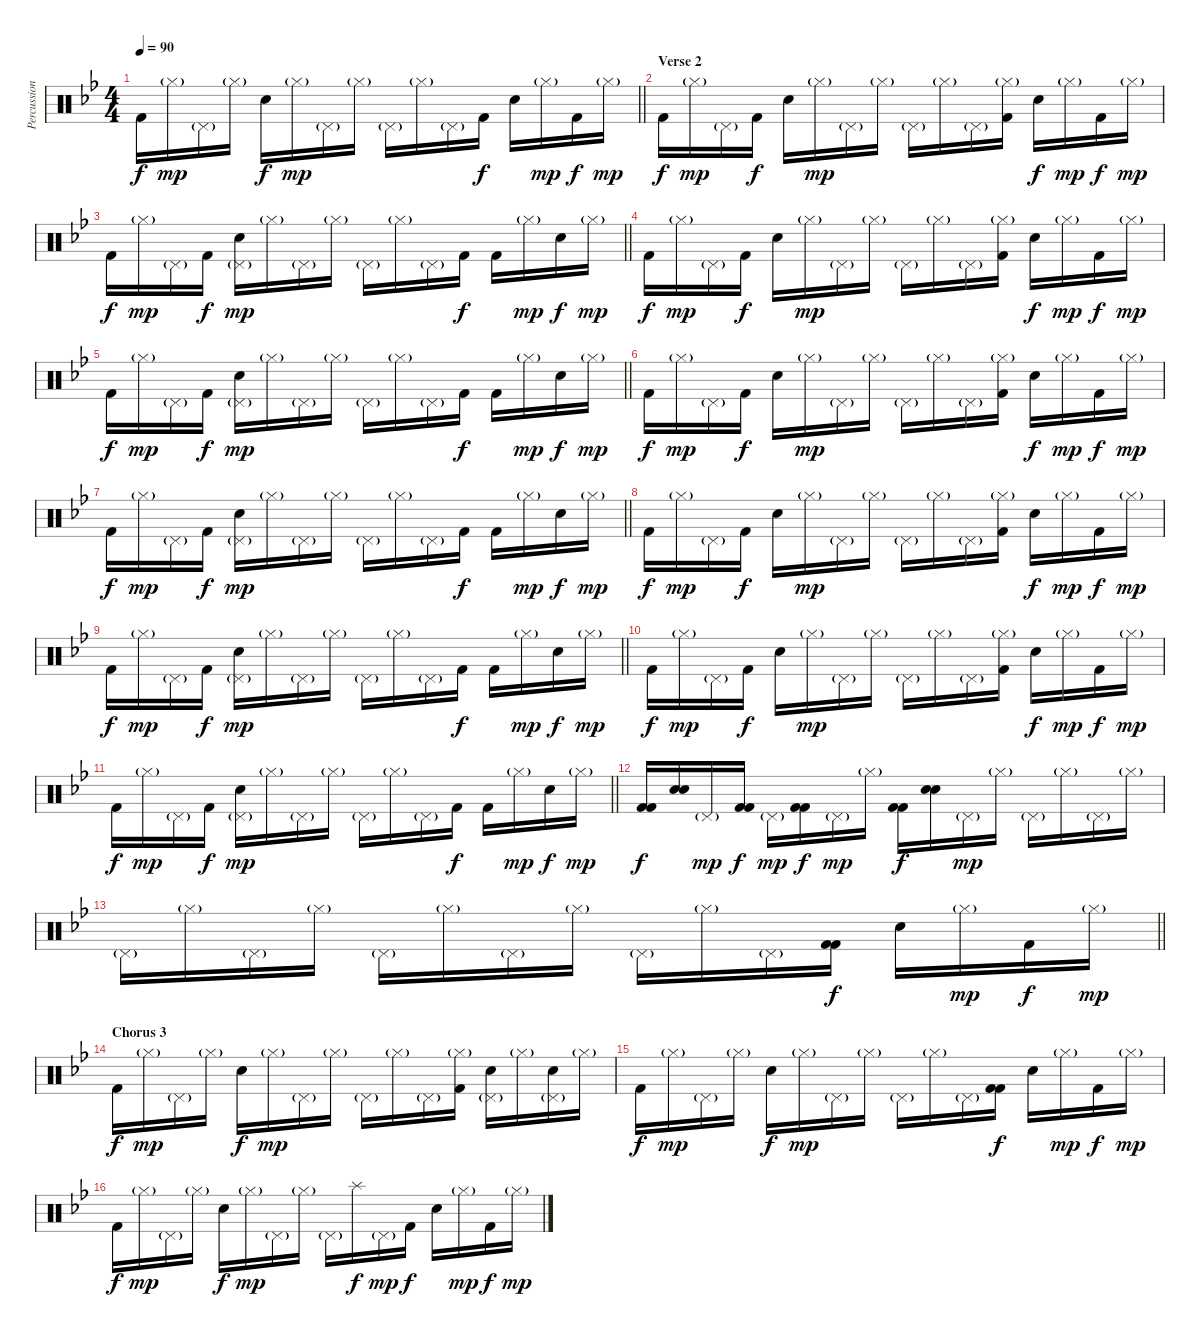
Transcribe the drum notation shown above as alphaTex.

\track ("Percussion" "Percussion") {instrument percussion}
\staff {score}
\articulation defaults
\ts (4 4)
\tempo 90
\clef neutral
\barLineRight lightlight
\ks bb "Kick (hit) 2".16{dy f} "Hi-Hat (closed)"{g}.16{dy mp} "Pedal Hi-Hat (hit)"{g}.16 "Hi-Hat (closed)"{g}.16 "Snare (hit) 2".16{dy f} "Hi-Hat (closed)"{g}.16{dy mp} "Pedal Hi-Hat (hit)"{g}.16 "Hi-Hat (closed)"{g}.16 "Pedal Hi-Hat (hit)"{g}.16 "Hi-Hat (closed)"{g}.16 "Pedal Hi-Hat (hit)"{g}.16 "Kick (hit) 2".16{dy f} "Snare (hit) 2".16 "Hi-Hat (closed)"{g}.16{dy mp} "Kick (hit) 2".16{dy f} "Hi-Hat (closed)"{g}.16{dy mp}
|
\section ("" "Verse 2")
"Kick (hit) 2".16{dy f} "Hi-Hat (closed)"{g}.16{dy mp} "Pedal Hi-Hat (hit)"{g}.16 "Kick (hit) 2".16{dy f} "Electric Snare (hit)".16 "Hi-Hat (closed)"{g}.16{dy mp} "Pedal Hi-Hat (hit)"{g}.16 "Hi-Hat (closed)"{g}.16 "Pedal Hi-Hat (hit)"{g}.16 "Hi-Hat (closed)"{g}.16 "Pedal Hi-Hat (hit)"{g}.16 ("Hi-Hat (closed)"{g} "Kick (hit) 2").16 "Snare (hit) 2".16{dy f} "Hi-Hat (closed)"{g}.16{dy mp} "Kick (hit) 2".16{dy f} "Hi-Hat (closed)"{g}.16{dy mp} |
\barLineRight lightlight "Kick (hit) 2".16{dy f} "Hi-Hat (closed)"{g}.16{dy mp} "Pedal Hi-Hat (hit)"{g}.16 "Kick (hit) 2".16{dy f}
("Pedal Hi-Hat (hit)"{g} "Snare (hit) 2").16{dy mp} "Hi-Hat (closed)"{g}.16 "Pedal Hi-Hat (hit)"{g}.16 "Hi-Hat (closed)"{g}.16 "Pedal Hi-Hat (hit)"{g}.16 "Hi-Hat (closed)"{g}.16 "Pedal Hi-Hat (hit)"{g}.16 "Kick (hit) 2".16{dy f} "Kick (hit) 2".16 "Hi-Hat (closed)"{g}.16{dy mp} "Snare (hit) 2".16{dy f} "Hi-Hat (closed)"{g}.16{dy mp} |
"Kick (hit) 2".16{dy f} "Hi-Hat (closed)"{g}.16{dy mp} "Pedal Hi-Hat (hit)"{g}.16 "Kick (hit) 2".16{dy f} "Electric Snare (hit)".16 "Hi-Hat (closed)"{g}.16{dy mp} "Pedal Hi-Hat (hit)"{g}.16 "Hi-Hat (closed)"{g}.16 "Pedal Hi-Hat (hit)"{g}.16 "Hi-Hat (closed)"{g}.16 "Pedal Hi-Hat (hit)"{g}.16 ("Hi-Hat (closed)"{g} "Kick (hit) 2").16 "Snare (hit) 2".16{dy f} "Hi-Hat (closed)"{g}.16{dy mp} "Kick (hit) 2".16{dy f} "Hi-Hat (closed)"{g}.16{dy mp} |
\barLineRight lightlight "Kick (hit) 2".16{dy f} "Hi-Hat (closed)"{g}.16{dy mp} "Pedal Hi-Hat (hit)"{g}.16 "Kick (hit) 2".16{dy f}
("Pedal Hi-Hat (hit)"{g} "Snare (hit) 2").16{dy mp} "Hi-Hat (closed)"{g}.16 "Pedal Hi-Hat (hit)"{g}.16 "Hi-Hat (closed)"{g}.16 "Pedal Hi-Hat (hit)"{g}.16 "Hi-Hat (closed)"{g}.16 "Pedal Hi-Hat (hit)"{g}.16 "Kick (hit) 2".16{dy f} "Kick (hit) 2".16 "Hi-Hat (closed)"{g}.16{dy mp} "Snare (hit) 2".16{dy f} "Hi-Hat (closed)"{g}.16{dy mp} |
"Kick (hit) 2".16{dy f} "Hi-Hat (closed)"{g}.16{dy mp} "Pedal Hi-Hat (hit)"{g}.16 "Kick (hit) 2".16{dy f} "Electric Snare (hit)".16 "Hi-Hat (closed)"{g}.16{dy mp} "Pedal Hi-Hat (hit)"{g}.16 "Hi-Hat (closed)"{g}.16 "Pedal Hi-Hat (hit)"{g}.16 "Hi-Hat (closed)"{g}.16 "Pedal Hi-Hat (hit)"{g}.16 ("Hi-Hat (closed)"{g} "Kick (hit) 2").16 "Snare (hit) 2".16{dy f} "Hi-Hat (closed)"{g}.16{dy mp} "Kick (hit) 2".16{dy f} "Hi-Hat (closed)"{g}.16{dy mp} |
\barLineRight lightlight "Kick (hit) 2".16{dy f} "Hi-Hat (closed)"{g}.16{dy mp} "Pedal Hi-Hat (hit)"{g}.16 "Kick (hit) 2".16{dy f}
("Pedal Hi-Hat (hit)"{g} "Snare (hit) 2").16{dy mp} "Hi-Hat (closed)"{g}.16 "Pedal Hi-Hat (hit)"{g}.16 "Hi-Hat (closed)"{g}.16 "Pedal Hi-Hat (hit)"{g}.16 "Hi-Hat (closed)"{g}.16 "Pedal Hi-Hat (hit)"{g}.16 "Kick (hit) 2".16{dy f} "Kick (hit) 2".16 "Hi-Hat (closed)"{g}.16{dy mp} "Snare (hit) 2".16{dy f} "Hi-Hat (closed)"{g}.16{dy mp} |
"Kick (hit) 2".16{dy f} "Hi-Hat (closed)"{g}.16{dy mp} "Pedal Hi-Hat (hit)"{g}.16 "Kick (hit) 2".16{dy f} "Electric Snare (hit)".16 "Hi-Hat (closed)"{g}.16{dy mp} "Pedal Hi-Hat (hit)"{g}.16 "Hi-Hat (closed)"{g}.16 "Pedal Hi-Hat (hit)"{g}.16 "Hi-Hat (closed)"{g}.16 "Pedal Hi-Hat (hit)"{g}.16 ("Hi-Hat (closed)"{g} "Kick (hit) 2").16 "Snare (hit) 2".16{dy f} "Hi-Hat (closed)"{g}.16{dy mp} "Kick (hit) 2".16{dy f} "Hi-Hat (closed)"{g}.16{dy mp} |
\barLineRight lightlight "Kick (hit) 2".16{dy f} "Hi-Hat (closed)"{g}.16{dy mp} "Pedal Hi-Hat (hit)"{g}.16 "Kick (hit) 2".16{dy f}
("Pedal Hi-Hat (hit)"{g} "Snare (hit) 2").16{dy mp} "Hi-Hat (closed)"{g}.16 "Pedal Hi-Hat (hit)"{g}.16 "Hi-Hat (closed)"{g}.16 "Pedal Hi-Hat (hit)"{g}.16 "Hi-Hat (closed)"{g}.16 "Pedal Hi-Hat (hit)"{g}.16 "Kick (hit) 2".16{dy f} "Kick (hit) 2".16 "Hi-Hat (closed)"{g}.16{dy mp} "Snare (hit) 2".16{dy f} "Hi-Hat (closed)"{g}.16{dy mp} |
"Kick (hit) 2".16{dy f} "Hi-Hat (closed)"{g}.16{dy mp} "Pedal Hi-Hat (hit)"{g}.16 "Kick (hit) 2".16{dy f} "Electric Snare (hit)".16 "Hi-Hat (closed)"{g}.16{dy mp} "Pedal Hi-Hat (hit)"{g}.16 "Hi-Hat (closed)"{g}.16 "Pedal Hi-Hat (hit)"{g}.16 "Hi-Hat (closed)"{g}.16 "Pedal Hi-Hat (hit)"{g}.16 ("Hi-Hat (closed)"{g} "Kick (hit) 2").16 "Snare (hit) 2".16{dy f} "Hi-Hat (closed)"{g}.16{dy mp} "Kick (hit) 2".16{dy f} "Hi-Hat (closed)"{g}.16{dy mp} |
\barLineRight lightlight "Kick (hit) 2".16{dy f} "Hi-Hat (closed)"{g}.16{dy mp} "Pedal Hi-Hat (hit)"{g}.16 "Kick (hit) 2".16{dy f}
("Pedal Hi-Hat (hit)"{g} "Snare (hit) 2").16{dy mp} "Hi-Hat (closed)"{g}.16 "Pedal Hi-Hat (hit)"{g}.16 "Hi-Hat (closed)"{g}.16 "Pedal Hi-Hat (hit)"{g}.16 "Hi-Hat (closed)"{g}.16 "Pedal Hi-Hat (hit)"{g}.16 "Kick (hit) 2".16{dy f} "Kick (hit) 2".16 "Hi-Hat (closed)"{g}.16{dy mp} "Snare (hit) 2".16{dy f} "Hi-Hat (closed)"{g}.16{dy mp} |
("Kick (hit) 2" "Kick (hit) 2").16{dy f} ("Snare (hit) 2" "Electric Snare (hit)").16 "Pedal Hi-Hat (hit)"{g}.16{dy mp} ("Kick (hit) 2" "Kick (hit) 2").16{dy f} "Pedal Hi-Hat (hit)"{g}.16{dy mp} ("Kick (hit) 2" "Kick (hit) 2").16{dy f} "Pedal Hi-Hat (hit)"{g}.16{dy mp} "Hi-Hat (closed)"{g}.16 ("Kick (hit) 2" "Kick (hit) 2").16{dy f} ("Snare (hit) 2" "Electric Snare (hit)").16 "Pedal Hi-Hat (hit)"{g}.16{dy mp} "Hi-Hat (closed)"{g}.16 "Pedal Hi-Hat (hit)"{g}.16 "Hi-Hat (closed)"{g}.16 "Pedal Hi-Hat (hit)"{g}.16 "Hi-Hat (closed)"{g}.16 |
\barLineRight lightlight "Pedal Hi-Hat (hit)"{g}.16 "Hi-Hat (closed)"{g}.16 "Pedal Hi-Hat (hit)"{g}.16 "Hi-Hat (closed)"{g}.16 "Pedal Hi-Hat (hit)"{g}.16 "Hi-Hat (closed)"{g}.16 "Pedal Hi-Hat (hit)"{g}.16 "Hi-Hat (closed)"{g}.16 "Pedal Hi-Hat (hit)"{g}.16 "Hi-Hat (closed)"{g}.16 "Pedal Hi-Hat (hit)"{g}.16
("Kick (hit) 2" "Kick (hit) 2").16{dy f} "Snare (hit) 2".16 "Hi-Hat (closed)"{g}.16{dy mp} "Kick (hit) 2".16{dy f} "Hi-Hat (closed)"{g}.16{dy mp} |
\section ("" "Chorus 3")
"Kick (hit) 2".16{dy f} "Hi-Hat (closed)"{g}.16{dy mp} "Pedal Hi-Hat (hit)"{g}.16 "Hi-Hat (closed)"{g}.16 "Snare (hit) 2".16{dy f} "Hi-Hat (closed)"{g}.16{dy mp} "Pedal Hi-Hat (hit)"{g}.16 "Hi-Hat (closed)"{g}.16 "Pedal Hi-Hat (hit)"{g}.16 "Hi-Hat (closed)"{g}.16 "Pedal Hi-Hat (hit)"{g}.16 ("Hi-Hat (closed)"{g} "Kick (hit) 2").16 ("Pedal Hi-Hat (hit)"{g} "Snare (hit) 2").16 "Hi-Hat (closed)"{g}.16 ("Pedal Hi-Hat (hit)"{g} "Snare (hit) 2").16 "Hi-Hat (closed)"{g}.16 |
"Kick (hit) 2".16{dy f} "Hi-Hat (closed)"{g}.16{dy mp} "Pedal Hi-Hat (hit)"{g}.16 "Hi-Hat (closed)"{g}.16 "Snare (hit) 2".16{dy f} "Hi-Hat (closed)"{g}.16{dy mp} "Pedal Hi-Hat (hit)"{g}.16 "Hi-Hat (closed)"{g}.16 "Pedal Hi-Hat (hit)"{g}.16 "Hi-Hat (closed)"{g}.16 "Pedal Hi-Hat (hit)"{g}.16 ("Kick (hit) 2" "Kick (hit) 2").16{dy f} "Snare (hit) 2".16 "Hi-Hat (closed)"{g}.16{dy mp} "Kick (hit) 2".16{dy f} "Hi-Hat (closed)"{g}.16{dy mp} |
"Kick (hit) 2".16{dy f} "Hi-Hat (closed)"{g}.16{dy mp} "Pedal Hi-Hat (hit)"{g}.16 "Hi-Hat (closed)"{g}.16 "Snare (hit) 2".16{dy f} "Hi-Hat (closed)"{g}.16{dy mp} "Pedal Hi-Hat (hit)"{g}.16 "Hi-Hat (closed)"{g}.16 "Pedal Hi-Hat (hit)"{g}.16 "Splash (hit)".16{dy f} "Pedal Hi-Hat (hit)"{g}.16{dy mp} "Kick (hit) 2".16{dy f} "Snare (hit) 2".16 "Hi-Hat (closed)"{g}.16{dy mp} "Kick (hit) 2".16{dy f} "Hi-Hat (closed)"{g}.16{dy mp}
